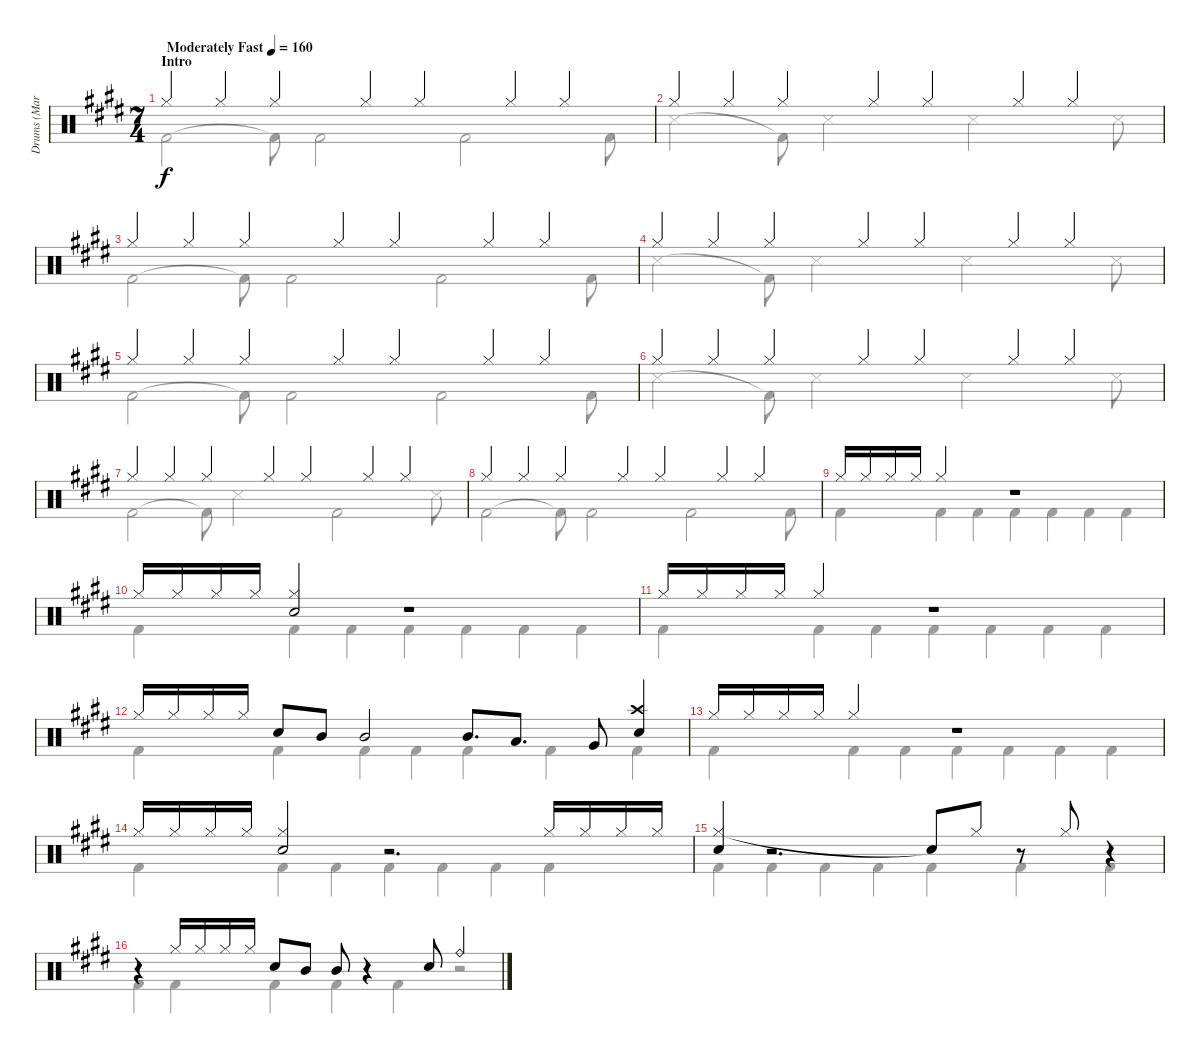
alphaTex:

\track ("Drums (Mark Zonder)" "Drums (Mar") {instrument percussion}
\staff {score}
\articulation defaults
\voice
\ts (7 4)
\section ("" "Intro")
\tempo (160 "Moderately Fast")
\clef neutral
\ks c#minor "Hi-Hat (closed)".4{dy f} "Hi-Hat (closed)".4 "Hi-Hat (closed)".4 "Hi-Hat (closed)".4 "Hi-Hat (closed)".4 "Hi-Hat (closed)".4 "Hi-Hat (closed)".4
|
"Hi-Hat (closed)".4 "Hi-Hat (closed)".4 "Hi-Hat (closed)".4 "Hi-Hat (closed)".4 "Hi-Hat (closed)".4 "Hi-Hat (closed)".4 "Hi-Hat (closed)".4 |
"Hi-Hat (closed)".4 "Hi-Hat (closed)".4 "Hi-Hat (closed)".4 "Hi-Hat (closed)".4 "Hi-Hat (closed)".4 "Hi-Hat (closed)".4 "Hi-Hat (closed)".4 |
"Hi-Hat (closed)".4 "Hi-Hat (closed)".4 "Hi-Hat (closed)".4 "Hi-Hat (closed)".4 "Hi-Hat (closed)".4 "Hi-Hat (closed)".4 "Hi-Hat (closed)".4 |
"Hi-Hat (closed)".4 "Hi-Hat (closed)".4 "Hi-Hat (closed)".4 "Hi-Hat (closed)".4 "Hi-Hat (closed)".4 "Hi-Hat (closed)".4 "Hi-Hat (closed)".4 |
"Hi-Hat (closed)".4 "Hi-Hat (closed)".4 "Hi-Hat (closed)".4 "Hi-Hat (closed)".4 "Hi-Hat (closed)".4 "Hi-Hat (closed)".4 "Hi-Hat (closed)".4 |
"Hi-Hat (closed)".4 "Hi-Hat (closed)".4 "Hi-Hat (closed)".4 "Hi-Hat (closed)".4 "Hi-Hat (closed)".4 "Hi-Hat (closed)".4 "Hi-Hat (closed)".4 |
"Hi-Hat (closed)".4 "Hi-Hat (closed)".4 "Hi-Hat (closed)".4 "Hi-Hat (closed)".4 "Hi-Hat (closed)".4 "Hi-Hat (closed)".4 "Hi-Hat (closed)".4 |
"Hi-Hat (closed)".16 "Hi-Hat (closed)".16 "Hi-Hat (closed)".16 "Hi-Hat (closed)".16 "Hi-Hat (closed)".2 r.1 |
"Hi-Hat (closed)".16 "Hi-Hat (closed)".16 "Hi-Hat (closed)".16 "Hi-Hat (closed)".16 ("Hi-Hat (closed)" "Electric Snare (hit)").2 r.1 |
"Hi-Hat (closed)".16 "Hi-Hat (closed)".16 "Hi-Hat (closed)".16 "Hi-Hat (closed)".16 "Hi-Hat (closed)".2 r.1 |
"Hi-Hat (closed)".16 "Hi-Hat (closed)".16 "Hi-Hat (closed)".16 "Hi-Hat (closed)".16 "Electric Snare (hit)".8 "Mid Tom (hit)".8 "Mid Tom (hit)".2 "Mid Tom (hit)".8{d} "Low Tom (hit)".8{d} "Very Low Tom (hit)".8 ("Electric Snare (hit)" "Crash high (hit)").4 |
"Hi-Hat (closed)".16 "Hi-Hat (closed)".16 "Hi-Hat (closed)".16 "Hi-Hat (closed)".16 "Hi-Hat (closed)".2 r.1 |
"Hi-Hat (closed)".16 "Hi-Hat (closed)".16 "Hi-Hat (closed)".16 "Hi-Hat (closed)".16 ("Hi-Hat (closed)" "Electric Snare (hit)").2 r.2{d} "Hi-Hat (closed)".16 "Hi-Hat (closed)".16 "Hi-Hat (closed)".16 "Hi-Hat (closed)".16 |
("Hi-Hat (closed)" "Electric Snare (hit)").4 r.2{d} "Snare (hit)"{t}.8 "Hi-Hat (closed)".8 r.8 "Hi-Hat (closed)".8 r.4 |
r.4 "Hi-Hat (closed)".16 "Hi-Hat (closed)".16 "Hi-Hat (closed)".16 "Hi-Hat (closed)".16 "Electric Snare (hit)".8 "Mid Tom (hit)".8 "Mid Tom (hit)".8 r.4 "Electric Snare (hit)".8 "Ride (bell)".2
\voice
\clef neutral
\ottava regular
\simile none
\ks c#minor "Kick (hit) 2".2{dy f} "Kick (hit) 2"{t}.8 "Kick (hit) 2".2 "Kick (hit) 2".2 "Kick (hit) 2".8
|
"Snare (side stick) 3".2 "Kick (hit) 2"{t}.8 "Snare (side stick) 3".2 "Snare (side stick) 3".2 "Snare (side stick) 3".8 |
"Kick (hit) 2".2 "Kick (hit) 2"{t}.8 "Kick (hit) 2".2 "Kick (hit) 2".2 "Kick (hit) 2".8 |
"Snare (side stick) 3".2 "Kick (hit) 2"{t}.8 "Snare (side stick) 3".2 "Snare (side stick) 3".2 "Snare (side stick) 3".8 |
"Kick (hit) 2".2 "Kick (hit) 2"{t}.8 "Kick (hit) 2".2 "Kick (hit) 2".2 "Kick (hit) 2".8 |
"Snare (side stick) 3".2 "Kick (hit) 2"{t}.8 "Snare (side stick) 3".2 "Snare (side stick) 3".2 "Snare (side stick) 3".8 |
"Kick (hit) 2".2 "Kick (hit) 2"{t}.8 "Snare (side stick) 3".2 "Kick (hit) 2".2 "Snare (side stick) 3".8 |
"Kick (hit) 2".2 "Kick (hit) 2"{t}.8 "Kick (hit) 2".2 "Kick (hit) 2".2 "Kick (hit) 2".8 |
"Kick (hit) 2".4 "Kick (hit) 2".4 "Kick (hit) 2".4 "Kick (hit) 2".4 "Kick (hit) 2".4 "Kick (hit) 2".4 "Kick (hit) 2".4 |
"Kick (hit) 2".4 "Kick (hit) 2".4 "Kick (hit) 2".4 "Kick (hit) 2".4 "Kick (hit) 2".4 "Kick (hit) 2".4 "Kick (hit) 2".4 |
"Kick (hit) 2".4 "Kick (hit) 2".4 "Kick (hit) 2".4 "Kick (hit) 2".4 "Kick (hit) 2".4 "Kick (hit) 2".4 "Kick (hit) 2".4 |
"Kick (hit) 2".4 "Kick (hit) 2".4 "Kick (hit) 2".4 "Kick (hit) 2".4 "Kick (hit) 2".4 "Kick (hit) 2".4 "Kick (hit) 2".4 |
"Kick (hit) 2".4 "Kick (hit) 2".4 "Kick (hit) 2".4 "Kick (hit) 2".4 "Kick (hit) 2".4 "Kick (hit) 2".4 "Kick (hit) 2".4 |
"Kick (hit) 2".4 "Kick (hit) 2".4 "Kick (hit) 2".4 "Kick (hit) 2".4 "Kick (hit) 2".4 "Kick (hit) 2".4 "Kick (hit) 2".4 |
"Kick (hit) 2".4 "Kick (hit) 2".4 "Kick (hit) 2".4 "Kick (hit) 2".4 "Kick (hit) 2".4 "Kick (hit) 2".4 "Kick (hit) 2".4 |
"Kick (hit) 2".4 "Kick (hit) 2".4 "Kick (hit) 2".4 "Kick (hit) 2".4 "Kick (hit) 2".4 r.2
